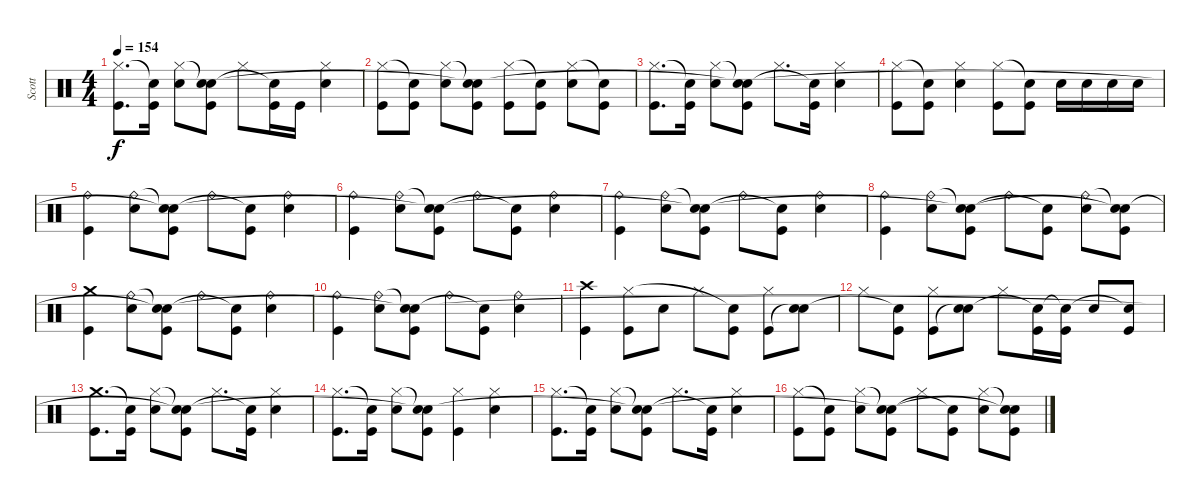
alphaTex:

\track ("Scott" "Scott") {instrument percussion}
\staff {score}
\articulation defaults
\ts (4 4)
\tempo 154
\clef neutral
\ks c
("Kick (hit)" "Hi-Hat (closed)").8{d dy f} ("Kick (hit)" "Snare (hit)"{t}).16 ("Snare (hit) 2" "Hi-Hat (closed)").8 ("Kick (hit)" "Snare (hit)"{t} "Snare (hit)"{t}).8 "Hi-Hat (closed)".8 ("Kick (hit)" "Snare (hit)"{t}).16 "Kick (hit)".16 ("Snare (hit) 2" "Hi-Hat (closed)").4 |
("Kick (hit)" "Hi-Hat (closed)").8 ("Kick (hit)" "Snare (hit)"{t}).8 ("Snare (hit) 2" "Hi-Hat (closed)").8 ("Kick (hit)" "Snare (hit)"{t} "Snare (hit)"{t}).8 ("Kick (hit)" "Hi-Hat (closed)").8 ("Kick (hit)" "Snare (hit)"{t}).8 ("Snare (hit) 2" "Hi-Hat (closed)").8 ("Kick (hit)" "Snare (hit)"{t}).8 |
("Kick (hit)" "Hi-Hat (closed)").8{d} ("Kick (hit)" "Snare (hit)"{t}).16 ("Snare (hit) 2" "Hi-Hat (closed)").8 ("Kick (hit)" "Snare (hit)"{t} "Snare (hit)"{t}).8 "Hi-Hat (closed)".8{d} ("Kick (hit)" "Snare (hit)"{t}).16 ("Snare (hit) 2" "Hi-Hat (closed)").4 |
("Kick (hit)" "Hi-Hat (closed)").8 ("Kick (hit)" "Snare (hit)"{t}).8 ("Snare (hit) 2" "Hi-Hat (closed)").4 ("Kick (hit)" "Hi-Hat (closed)").8 ("Kick (hit)" "Snare (hit)"{t}).8 "Snare (hit) 2".16 "Snare (hit) 2".16 "Snare (hit) 2".16 "Snare (hit) 2".16 |
("Kick (hit)" "Ride (bell)").4 ("Snare (hit) 2" "Ride (bell)").8 ("Kick (hit)" "Snare (hit)"{t} "Snare (hit)"{t}).8 "Ride (bell)".8 ("Kick (hit)" "Snare (hit)"{t}).8 ("Snare (hit) 2" "Ride (bell)").4 |
("Kick (hit)" "Ride (bell)").4 ("Snare (hit) 2" "Ride (bell)").8 ("Kick (hit)" "Snare (hit)"{t} "Snare (hit)"{t}).8 "Ride (bell)".8 ("Kick (hit)" "Snare (hit)"{t}).8 ("Snare (hit) 2" "Ride (bell)").4 |
("Kick (hit)" "Ride (bell)").4 ("Snare (hit) 2" "Ride (bell)").8 ("Kick (hit)" "Snare (hit)"{t} "Snare (hit)"{t}).8 "Ride (bell)".8 ("Kick (hit)" "Snare (hit)"{t}).8 ("Snare (hit) 2" "Ride (bell)").4 |
("Kick (hit)" "Ride (bell)").4 ("Snare (hit) 2" "Ride (bell)").8 ("Kick (hit)" "Snare (hit)"{t} "Snare (hit)"{t}).8 "Ride (bell)".8 ("Kick (hit)" "Snare (hit)"{t}).8 ("Snare (hit) 2" "Ride (bell)").8 ("Kick (hit)" "Snare (hit)"{t} "Snare (hit)"{t}).8 |
("Kick (hit)" "Crash medium (hit)").4 ("Snare (hit) 2" "Ride (bell)").8 ("Kick (hit)" "Snare (hit)"{t} "Snare (hit)"{t}).8 "Ride (bell)".8 ("Kick (hit)" "Snare (hit)"{t}).8 ("Snare (hit) 2" "Ride (bell)").4 |
("Kick (hit)" "Ride (bell)").4 ("Snare (hit) 2" "Ride (bell)").8 ("Kick (hit)" "Snare (hit)"{t} "Snare (hit)"{t}).8 "Ride (bell)".8 ("Kick (hit)" "Snare (hit)"{t}).8 ("Snare (hit) 2" "Ride (bell)").4 |
("Kick (hit)" "Crash high (hit)").4 ("Kick (hit)" "Hi-Hat (closed)").8 "Snare (hit) 2".8 "Hi-Hat (closed)".8 ("Kick (hit)" "Snare (hit)"{t}).8 ("Kick (hit)" "Hi-Hat (closed)").8 ("Snare (hit)"{t} "Snare (hit) 2").8 |
"Hi-Hat (closed)".8 ("Kick (hit)" "Snare (hit)"{t}).8 ("Kick (hit)" "Hi-Hat (closed)").8 ("Snare (hit)"{t} "Snare (hit) 2").8 "Hi-Hat (closed)".8 ("Kick (hit)" "Snare (hit)"{t}).16 ("Kick (hit)" "Snare (hit)"{t}).16 "Snare (hit) 2".8 ("Kick (hit)" "Snare (hit)"{t}).8 |
("Kick (hit)" "Crash medium (hit)").8{d} ("Kick (hit)" "Snare (hit)"{t}).16 ("Snare (hit) 2" "Hi-Hat (closed)").8 ("Kick (hit)" "Snare (hit)"{t} "Snare (hit)"{t}).8 "Hi-Hat (closed)".8{d} ("Kick (hit)" "Snare (hit)"{t}).16 ("Snare (hit) 2" "Hi-Hat (closed)").4 |
("Kick (hit)" "Hi-Hat (closed)").8{d} ("Kick (hit)" "Snare (hit)"{t}).16 ("Snare (hit) 2" "Hi-Hat (closed)").8 ("Kick (hit)" "Snare (hit)"{t} "Snare (hit)"{t}).8 ("Kick (hit)" "Hi-Hat (closed)").4 ("Snare (hit) 2" "Hi-Hat (closed)").4 |
("Kick (hit)" "Hi-Hat (closed)").8{d} ("Kick (hit)" "Snare (hit)"{t}).16 ("Snare (hit) 2" "Hi-Hat (closed)").8 ("Kick (hit)" "Snare (hit)"{t} "Snare (hit)"{t}).8 "Hi-Hat (closed)".8{d} ("Kick (hit)" "Snare (hit)"{t}).16 ("Snare (hit) 2" "Hi-Hat (closed)").4 |
("Kick (hit)" "Hi-Hat (closed)").8 ("Kick (hit)" "Snare (hit)"{t}).8 ("Snare (hit) 2" "Hi-Hat (closed)").8 ("Kick (hit)" "Snare (hit)"{t} "Snare (hit)"{t}).8 "Hi-Hat (closed)".8 ("Kick (hit)" "Snare (hit)"{t}).8 ("Snare (hit) 2" "Hi-Hat (closed)").8 ("Kick (hit)" "Snare (hit)"{t} "Snare (hit)"{t}).8
